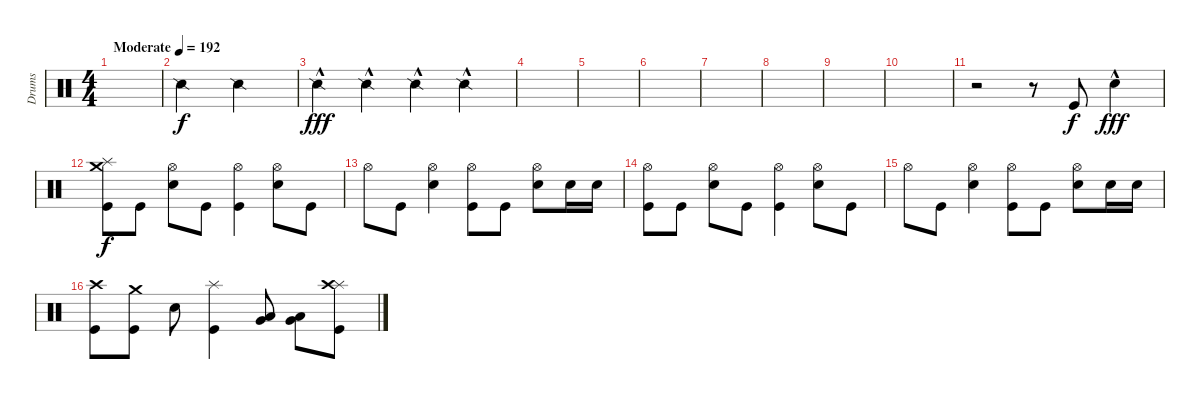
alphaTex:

\track ("Drums" "Drums") {instrument percussion}
\staff {score}
\articulation defaults
\ts (4 4)
\tempo (192 "Moderate")
\clef neutral
\ks c
|
"Snare (side stick) 2".2 "Snare (side stick) 2".2 |
"Snare (side stick) 2"{hac}.4{dy fff} "Snare (side stick) 2"{hac}.4 "Snare (side stick) 2"{hac}.4 "Snare (side stick) 2"{hac}.4 |
|
|
|
|
|
|
|
r.2 r.8 "Kick (hit)".8{dy f} "Snare (hit) 2"{hac}.4{dy fff} |
("Splash (hit)" "Kick (hit)" "Crash medium (hit)").8{dy f} "Kick (hit)".8 ("Snare (hit) 2" "Hi-Hat (open)").8 "Kick (hit)".8 ("Hi-Hat (open)" "Kick (hit)").4 ("Snare (hit) 2" "Hi-Hat (open)").8 "Kick (hit)".8 |
"Hi-Hat (open)".8 "Kick (hit)".8 ("Snare (hit) 2" "Hi-Hat (open)").4 ("Hi-Hat (open)" "Kick (hit)").8 "Kick (hit)".8 ("Snare (hit) 2" "Hi-Hat (open)").8 "Snare (hit) 2".16 "Snare (hit) 2".16 |
("Hi-Hat (open)" "Kick (hit)").8 "Kick (hit)".8 ("Snare (hit) 2" "Hi-Hat (open)").8 "Kick (hit)".8 ("Hi-Hat (open)" "Kick (hit)").4 ("Snare (hit) 2" "Hi-Hat (open)").8 "Kick (hit)".8 |
"Hi-Hat (open)".8 "Kick (hit)".8 ("Snare (hit) 2" "Hi-Hat (open)").4 ("Hi-Hat (open)" "Kick (hit)").8 "Kick (hit)".8 ("Snare (hit) 2" "Hi-Hat (open)").8 "Snare (hit) 2".16 "Snare (hit) 2".16 |
("Kick (hit)" "Crash high (hit)").8 ("Crash medium (hit)" "Kick (hit)").8 "Snare (hit) 2".8 ("Kick (hit)" "Splash (hit)").4 ("Very Low Tom (hit)" "Low Floor Tom (hit)").8 ("Very Low Tom (hit)" "Low Floor Tom (hit)").8 ("Splash (hit)" "Kick (hit)" "Crash high (hit)").8
